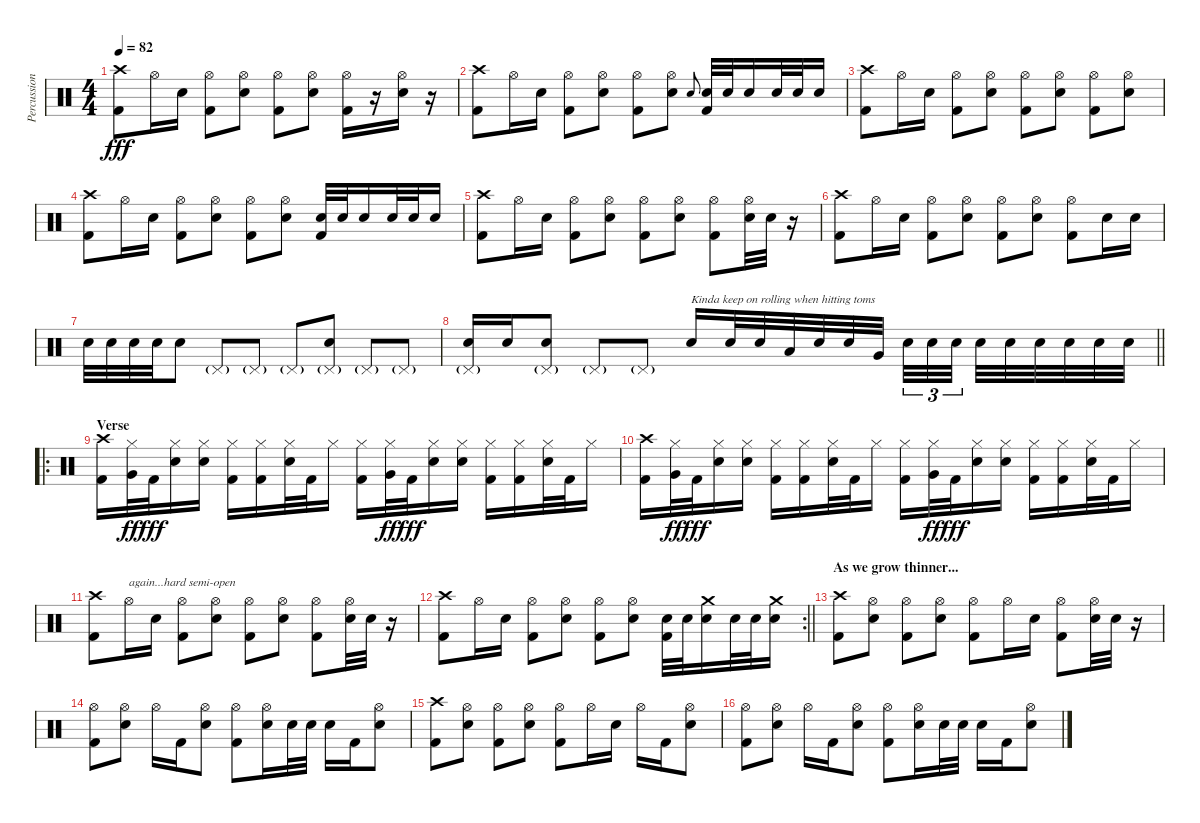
\track ("Percussion" "Percussion") {instrument percussion}
\staff {score}
\articulation defaults
\ts (4 4)
\tempo 82
\clef neutral
\ks c
("Crash high (hit)" "Kick (hit) 2").8{dy fff} "Hi-Hat (open)".16 "Electric Snare (hit)".16 ("Hi-Hat (open)" "Kick (hit) 2").8 ("Hi-Hat (open)" "Electric Snare (hit)").8 ("Hi-Hat (open)" "Kick (hit) 2").8 ("Hi-Hat (open)" "Electric Snare (hit)").8 ("Hi-Hat (open)" "Kick (hit) 2").16 r.16 ("Hi-Hat (open)" "Electric Snare (hit)").16 r.16 |
("Crash high (hit)" "Kick (hit) 2").8 "Hi-Hat (open)".16 "Electric Snare (hit)".16 ("Hi-Hat (open)" "Kick (hit) 2").8 ("Hi-Hat (open)" "Electric Snare (hit)").8 ("Hi-Hat (open)" "Kick (hit) 2").8 ("Hi-Hat (open)" "Electric Snare (hit)").8 "Electric Snare (hit)".8{gr onbeat} ("Electric Snare (hit)" "Kick (hit) 2").32 "Electric Snare (hit)".32 "Electric Snare (hit)".16 "Electric Snare (hit)".32 "Electric Snare (hit)".32 "Electric Snare (hit)".16 |
("Crash high (hit)" "Kick (hit) 2").8 "Hi-Hat (open)".16 "Electric Snare (hit)".16 ("Hi-Hat (open)" "Kick (hit) 2").8 ("Hi-Hat (open)" "Electric Snare (hit)").8 ("Hi-Hat (open)" "Kick (hit) 2").8 ("Hi-Hat (open)" "Electric Snare (hit)").8 ("Hi-Hat (open)" "Kick (hit) 2").8 ("Hi-Hat (open)" "Electric Snare (hit)").8 |
("Crash high (hit)" "Kick (hit) 2").8 "Hi-Hat (open)".16 "Electric Snare (hit)".16 ("Hi-Hat (open)" "Kick (hit) 2").8 ("Hi-Hat (open)" "Electric Snare (hit)").8 ("Hi-Hat (open)" "Kick (hit) 2").8 ("Hi-Hat (open)" "Electric Snare (hit)").8 ("Electric Snare (hit)" "Kick (hit) 2").32 "Electric Snare (hit)".32 "Electric Snare (hit)".16 "Electric Snare (hit)".32 "Electric Snare (hit)".32 "Electric Snare (hit)".16 |
("Crash high (hit)" "Kick (hit) 2").8 "Hi-Hat (open)".16 "Electric Snare (hit)".16 ("Hi-Hat (open)" "Kick (hit) 2").8 ("Hi-Hat (open)" "Electric Snare (hit)").8 ("Hi-Hat (open)" "Kick (hit) 2").8 ("Hi-Hat (open)" "Electric Snare (hit)").8 ("Hi-Hat (open)" "Kick (hit) 2").8 ("Hi-Hat (open)" "Electric Snare (hit)").32 "Electric Snare (hit)".32 r.16 |
("Crash high (hit)" "Kick (hit) 2").8 "Hi-Hat (open)".16 "Electric Snare (hit)".16 ("Hi-Hat (open)" "Kick (hit) 2").8 ("Hi-Hat (open)" "Electric Snare (hit)").8 ("Hi-Hat (open)" "Kick (hit) 2").8 ("Hi-Hat (open)" "Electric Snare (hit)").8 ("Hi-Hat (open)" "Kick (hit) 2").8 "Electric Snare (hit)".16 "Electric Snare (hit)".16 |
"Electric Snare (hit)".32 "Electric Snare (hit)".32 "Electric Snare (hit)".32 "Electric Snare (hit)".32 "Electric Snare (hit)".8 "Pedal Hi-Hat (hit)"{g}.8 "Pedal Hi-Hat (hit)"{g}.8 "Pedal Hi-Hat (hit)"{g}.8 ("Pedal Hi-Hat (hit)"{g} "Electric Snare (hit)").8 "Pedal Hi-Hat (hit)"{g}.8 "Pedal Hi-Hat (hit)"{g}.8 |
\barLineRight lightlight
("Pedal Hi-Hat (hit)"{g} "Electric Snare (hit)").16 "Electric Snare (hit)".16 ("Pedal Hi-Hat (hit)"{g} "Electric Snare (hit)").8 "Pedal Hi-Hat (hit)"{g}.8 "Pedal Hi-Hat (hit)"{g}.8 "Electric Snare (hit)".16{txt "Kinda keep on rolling when hitting toms"} "Electric Snare (hit)".32 "Electric Snare (hit)".32 "Low Tom (hit)".32 "Electric Snare (hit)".32 "Electric Snare (hit)".32 "Very Low Tom (hit)".32 "Electric Snare (hit)".32{tu (3 2)} "Electric Snare (hit)".32{tu (3 2)} "Electric Snare (hit)".32{tu (3 2) beam splitsecondary} "Electric Snare (hit)".32 "Electric Snare (hit)".32 "Electric Snare (hit)".32 "Electric Snare (hit)".32 "Electric Snare (hit)".32 "Electric Snare (hit)".32 |
\ro
\section ("" "Verse")
("Crash high (hit)" "Kick (hit) 2").16 ("Hi-Hat (closed)" "Very Low Tom (hit)").32{dy ff} "Kick (hit) 2".32{dy fff} ("Hi-Hat (closed)" "Electric Snare (hit)").16 ("Hi-Hat (closed)" "Electric Snare (hit)").16 ("Hi-Hat (closed)" "Kick (hit) 2").16 ("Hi-Hat (closed)" "Kick (hit) 2").16 ("Hi-Hat (closed)" "Electric Snare (hit)").32 "Kick (hit) 2".32 "Hi-Hat (closed)".16 ("Hi-Hat (closed)" "Kick (hit) 2").16 ("Hi-Hat (closed)" "Very Low Tom (hit)").32{dy ff} "Kick (hit) 2".32{dy fff} ("Hi-Hat (closed)" "Electric Snare (hit)").16 ("Hi-Hat (closed)" "Electric Snare (hit)").16 ("Hi-Hat (closed)" "Kick (hit) 2").16 ("Hi-Hat (closed)" "Kick (hit) 2").16 ("Hi-Hat (closed)" "Electric Snare (hit)").32 "Kick (hit) 2".32 "Hi-Hat (closed)".16 |
("Crash high (hit)" "Kick (hit) 2").16 ("Hi-Hat (closed)" "Very Low Tom (hit)").32{dy ff} "Kick (hit) 2".32{dy fff} ("Hi-Hat (closed)" "Electric Snare (hit)").16 ("Hi-Hat (closed)" "Electric Snare (hit)").16 ("Hi-Hat (closed)" "Kick (hit) 2").16 ("Hi-Hat (closed)" "Kick (hit) 2").16 ("Hi-Hat (closed)" "Electric Snare (hit)").32 "Kick (hit) 2".32 "Hi-Hat (closed)".16 ("Hi-Hat (closed)" "Kick (hit) 2").16 ("Hi-Hat (closed)" "Very Low Tom (hit)").32{dy ff} "Kick (hit) 2".32{dy fff} ("Hi-Hat (closed)" "Electric Snare (hit)").16 ("Hi-Hat (closed)" "Electric Snare (hit)").16 ("Hi-Hat (closed)" "Kick (hit) 2").16 ("Hi-Hat (closed)" "Kick (hit) 2").16 ("Hi-Hat (closed)" "Electric Snare (hit)").32 "Kick (hit) 2".32 "Hi-Hat (closed)".16 |
("Crash high (hit)" "Kick (hit) 2").8 "Hi-Hat (open)".16{txt "again...hard semi-open"} "Electric Snare (hit)".16 ("Hi-Hat (open)" "Kick (hit) 2").8 ("Hi-Hat (open)" "Electric Snare (hit)").8 ("Hi-Hat (open)" "Kick (hit) 2").8 ("Hi-Hat (open)" "Electric Snare (hit)").8 ("Hi-Hat (open)" "Kick (hit) 2").8 ("Hi-Hat (open)" "Electric Snare (hit)").32 "Electric Snare (hit)".32 r.16 |
\rc 2
\barLineRight lightlight
("Crash high (hit)" "Kick (hit) 2").8 "Hi-Hat (open)".16 "Electric Snare (hit)".16 ("Hi-Hat (open)" "Kick (hit) 2").8 ("Hi-Hat (open)" "Electric Snare (hit)").8 ("Hi-Hat (open)" "Kick (hit) 2").8 ("Hi-Hat (open)" "Electric Snare (hit)").8 ("Electric Snare (hit)" "Kick (hit) 2").32 "Electric Snare (hit)".32 ("Crash medium (hit)" "Electric Snare (hit)").16 "Electric Snare (hit)".32 "Electric Snare (hit)".32 ("Crash medium (hit)" "Electric Snare (hit)").16 |
\section ("" "As we grow thinner...")
("Crash high (hit)" "Kick (hit) 2").8 ("Hi-Hat (open)" "Electric Snare (hit)").8 ("Hi-Hat (open)" "Kick (hit) 2").8 ("Hi-Hat (open)" "Electric Snare (hit)").8 ("Hi-Hat (open)" "Kick (hit) 2").8 "Hi-Hat (open)".16 "Electric Snare (hit)".16 ("Hi-Hat (open)" "Kick (hit) 2").8 ("Hi-Hat (open)" "Electric Snare (hit)").32 "Electric Snare (hit)".32 r.16 |
("Hi-Hat (open)" "Kick (hit) 2").8 ("Hi-Hat (open)" "Electric Snare (hit)").8 "Hi-Hat (open)".16 "Kick (hit) 2".16 ("Hi-Hat (open)" "Electric Snare (hit)").8 ("Hi-Hat (open)" "Kick (hit) 2").8 ("Hi-Hat (open)" "Electric Snare (hit)").16 "Electric Snare (hit)".32 "Electric Snare (hit)".32 "Electric Snare (hit)".16 "Kick (hit) 2".16 ("Hi-Hat (open)" "Electric Snare (hit)").8 |
("Crash high (hit)" "Kick (hit) 2").8 ("Hi-Hat (open)" "Electric Snare (hit)").8 ("Hi-Hat (open)" "Kick (hit) 2").8 ("Hi-Hat (open)" "Electric Snare (hit)").8 ("Hi-Hat (open)" "Kick (hit) 2").8 "Hi-Hat (open)".16 "Electric Snare (hit)".16 "Hi-Hat (open)".16 "Kick (hit) 2".16 ("Hi-Hat (open)" "Electric Snare (hit)").8 |
("Hi-Hat (open)" "Kick (hit) 2").8 ("Hi-Hat (open)" "Electric Snare (hit)").8 "Hi-Hat (open)".16 "Kick (hit) 2".16 ("Hi-Hat (open)" "Electric Snare (hit)").8 ("Hi-Hat (open)" "Kick (hit) 2").8 ("Hi-Hat (open)" "Electric Snare (hit)").16 "Electric Snare (hit)".32 "Electric Snare (hit)".32 "Electric Snare (hit)".16 "Kick (hit) 2".16 ("Hi-Hat (open)" "Electric Snare (hit)").8
